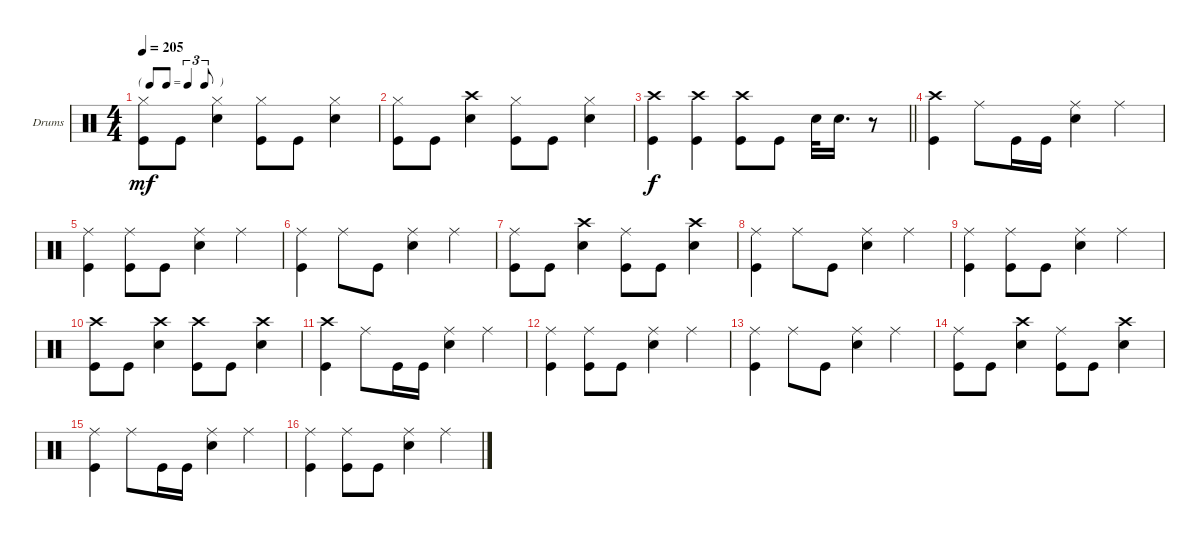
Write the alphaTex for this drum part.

\bracketExtendMode groupsimilarinstruments
\firstSystemTrackNameOrientation horizontal
\otherSystemsTrackNameOrientation horizontal
\track ("Drums" "Drums") {instrument percussion}
\staff {score}
\articulation defaults
\ts (4 4)
\tf triplet8th
\tempo 205
\clef neutral
\ks c
("Kick (hit)" "Hi-Hat (closed)").8{dy mf} "Kick (hit)".8 ("Snare (hit) 2" "Hi-Hat (closed)").4 ("Kick (hit)" "Hi-Hat (closed)").8 "Kick (hit)".8 ("Snare (hit) 2" "Hi-Hat (closed)").4 |
("Kick (hit)" "Hi-Hat (closed)").8 "Kick (hit)".8 ("Crash high (hit)" "Snare (hit) 2").4 ("Kick (hit)" "Hi-Hat (closed)").8 "Kick (hit)".8 ("Snare (hit) 2" "Hi-Hat (closed)").4 |
\barLineRight lightlight
("Kick (hit)" "Crash high (hit)").4{dy f} ("Kick (hit)" "Crash high (hit)").4 ("Kick (hit)" "Crash high (hit)").8 "Kick (hit)".8 "Snare (hit) 2".32 "Snare (hit) 2".16{d} r.8 |
("Kick (hit)" "Crash high (hit)").4 "Ride (middle)".8 "Kick (hit)".16 "Kick (hit)".16 ("Snare (hit) 2" "Ride (middle)").4 "Ride (middle)".4 |
("Kick (hit)" "Ride (middle)").4 ("Ride (middle)" "Kick (hit)").8 "Kick (hit)".8 ("Snare (hit) 2" "Ride (middle)").4 "Ride (middle)".4 |
("Kick (hit)" "Ride (middle)").4 "Ride (middle)".8 "Kick (hit)".8 ("Ride (middle)" "Snare (hit) 2").4 "Ride (middle)".4 |
("Ride (middle)" "Kick (hit)").8 "Kick (hit)".8 ("Snare (hit) 2" "Crash high (hit)").4 ("Ride (middle)" "Kick (hit)").8 "Kick (hit)".8 ("Snare (hit) 2" "Crash high (hit)").4 |
("Ride (middle)" "Kick (hit)").4 "Ride (middle)".8 "Kick (hit)".8 ("Ride (middle)" "Snare (hit) 2").4 "Ride (middle)".4 |
("Kick (hit)" "Ride (middle)").4 ("Ride (middle)" "Kick (hit)").8 "Kick (hit)".8 ("Snare (hit) 2" "Ride (middle)").4 "Ride (middle)".4 |
("Kick (hit)" "Crash high (hit)").8 "Kick (hit)".8 ("Snare (hit) 2" "Crash high (hit)").4 ("Kick (hit)" "Crash high (hit)").8 "Kick (hit)".8 ("Snare (hit) 2" "Crash high (hit)").4 |
("Kick (hit)" "Crash high (hit)").4 "Ride (middle)".8 "Kick (hit)".16 "Kick (hit)".16 ("Snare (hit) 2" "Ride (middle)").4 "Ride (middle)".4 |
("Kick (hit)" "Ride (middle)").4 ("Ride (middle)" "Kick (hit)").8 "Kick (hit)".8 ("Snare (hit) 2" "Ride (middle)").4 "Ride (middle)".4 |
("Kick (hit)" "Ride (middle)").4 "Ride (middle)".8 "Kick (hit)".8 ("Ride (middle)" "Snare (hit) 2").4 "Ride (middle)".4 |
("Ride (middle)" "Kick (hit)").8 "Kick (hit)".8 ("Snare (hit) 2" "Crash high (hit)").4 ("Ride (middle)" "Kick (hit)").8 "Kick (hit)".8 ("Snare (hit) 2" "Crash high (hit)").4 |
("Ride (middle)" "Kick (hit)").4 "Ride (middle)".8 "Kick (hit)".16 "Kick (hit)".16 ("Ride (middle)" "Snare (hit) 2").4 "Ride (middle)".4 |
("Kick (hit)" "Ride (middle)").4 ("Ride (middle)" "Kick (hit)").8 "Kick (hit)".8 ("Snare (hit) 2" "Ride (middle)").4 "Ride (middle)".4
